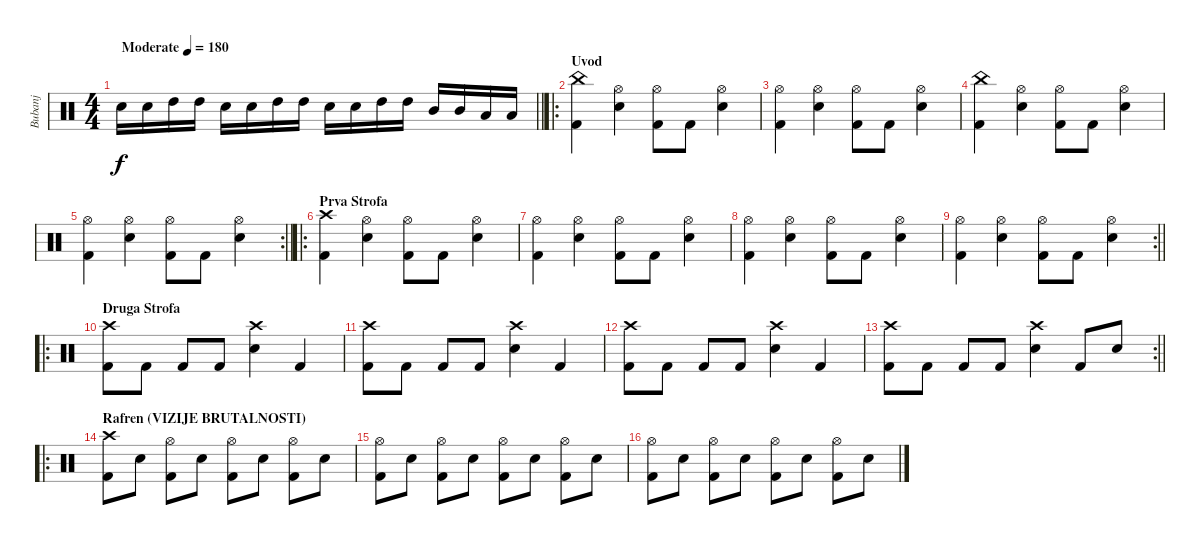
\track ("Bubanj" "Bubanj") {instrument percussion}
\staff
\articulation defaults
\ts (4 4)
\tempo (180 "Moderate")
\clef neutral
\barLineRight lightlight
\ks c "Electric Snare (hit)".16{dy f} "Electric Snare (hit)".16 "High Tom (hit)".16 "High Tom (hit)".16 "Electric Snare (hit)".16 "Electric Snare (hit)".16 "High Tom (hit)".16 "High Tom (hit)".16 "Electric Snare (hit)".16 "Electric Snare (hit)".16 "High Tom (hit)".16 "High Tom (hit)".16 "Mid Tom (hit)".16 "Mid Tom (hit)".16 "Low Tom (hit)".16 "Low Tom (hit)".16
|
\ro
\section ("" "Uvod")
("China (hit)" "Kick (hit) 2").4 ("Hi-Hat (open)" "Snare (hit) 2").4 ("Hi-Hat (open)" "Kick (hit) 2").8 "Kick (hit) 2".8 ("Hi-Hat (open)" "Snare (hit) 2").4 |
("Hi-Hat (open)" "Kick (hit) 2").4 ("Hi-Hat (open)" "Snare (hit) 2").4 ("Hi-Hat (open)" "Kick (hit) 2").8 "Kick (hit) 2".8 ("Hi-Hat (open)" "Snare (hit) 2").4 |
("China (hit)" "Kick (hit) 2").4 ("Hi-Hat (open)" "Snare (hit) 2").4 ("Hi-Hat (open)" "Kick (hit) 2").8 "Kick (hit) 2".8 ("Hi-Hat (open)" "Snare (hit) 2").4 |
\rc 2
\barLineRight lightlight
("Hi-Hat (open)" "Kick (hit) 2").4 ("Hi-Hat (open)" "Snare (hit) 2").4 ("Hi-Hat (open)" "Kick (hit) 2").8 "Kick (hit) 2".8 ("Hi-Hat (open)" "Snare (hit) 2").4 |
\ro
\section ("" "Prva Strofa")
("Crash high (hit)" "Kick (hit) 2").4 ("Hi-Hat (open)" "Snare (hit) 2").4 ("Hi-Hat (open)" "Kick (hit) 2").8 "Kick (hit) 2".8 ("Hi-Hat (open)" "Snare (hit) 2").4 |
("Hi-Hat (open)" "Kick (hit) 2").4 ("Hi-Hat (open)" "Snare (hit) 2").4 ("Hi-Hat (open)" "Kick (hit) 2").8 "Kick (hit) 2".8 ("Hi-Hat (open)" "Snare (hit) 2").4 |
("Hi-Hat (open)" "Kick (hit) 2").4 ("Hi-Hat (open)" "Snare (hit) 2").4 ("Hi-Hat (open)" "Kick (hit) 2").8 "Kick (hit) 2".8 ("Hi-Hat (open)" "Snare (hit) 2").4 |
\rc 2
\barLineRight lightlight
("Hi-Hat (open)" "Kick (hit) 2").4 ("Hi-Hat (open)" "Snare (hit) 2").4 ("Hi-Hat (open)" "Kick (hit) 2").8 "Kick (hit) 2".8 ("Hi-Hat (open)" "Snare (hit) 2").4 |
\ro
\section ("" "Druga Strofa")
("Crash high (hit)" "Kick (hit) 2").8 "Kick (hit) 2".8 "Kick (hit) 2".8 "Kick (hit) 2".8 ("Crash high (hit)" "Snare (hit) 2").4 "Kick (hit) 2".4 |
("Crash high (hit)" "Kick (hit) 2").8 "Kick (hit) 2".8 "Kick (hit) 2".8 "Kick (hit) 2".8 ("Crash high (hit)" "Snare (hit) 2").4 "Kick (hit) 2".4 |
("Crash high (hit)" "Kick (hit) 2").8 "Kick (hit) 2".8 "Kick (hit) 2".8 "Kick (hit) 2".8 ("Crash high (hit)" "Snare (hit) 2").4 "Kick (hit) 2".4 |
\rc 2
\barLineRight lightlight
("Crash high (hit)" "Kick (hit) 2").8 "Kick (hit) 2".8 "Kick (hit) 2".8 "Kick (hit) 2".8 ("Crash high (hit)" "Snare (hit) 2").4 "Kick (hit) 2".8 "Snare (hit) 2".8 |
\ro
\section ("" "Rafren (VIZIJE BRUTALNOSTI)")
("Crash high (hit)" "Kick (hit) 2").8 "Snare (hit) 2".8 ("Hi-Hat (open)" "Kick (hit) 2").8 "Snare (hit) 2".8 ("Hi-Hat (open)" "Kick (hit) 2").8 "Snare (hit) 2".8 ("Hi-Hat (open)" "Kick (hit) 2").8 "Snare (hit) 2".8 |
("Hi-Hat (open)" "Kick (hit) 2").8 "Snare (hit) 2".8 ("Hi-Hat (open)" "Kick (hit) 2").8 "Snare (hit) 2".8 ("Hi-Hat (open)" "Kick (hit) 2").8 "Snare (hit) 2".8 ("Hi-Hat (open)" "Kick (hit) 2").8 "Snare (hit) 2".8 |
("Hi-Hat (open)" "Kick (hit) 2").8 "Snare (hit) 2".8 ("Hi-Hat (open)" "Kick (hit) 2").8 "Snare (hit) 2".8 ("Hi-Hat (open)" "Kick (hit) 2").8 "Snare (hit) 2".8 ("Hi-Hat (open)" "Kick (hit) 2").8 "Snare (hit) 2".8
